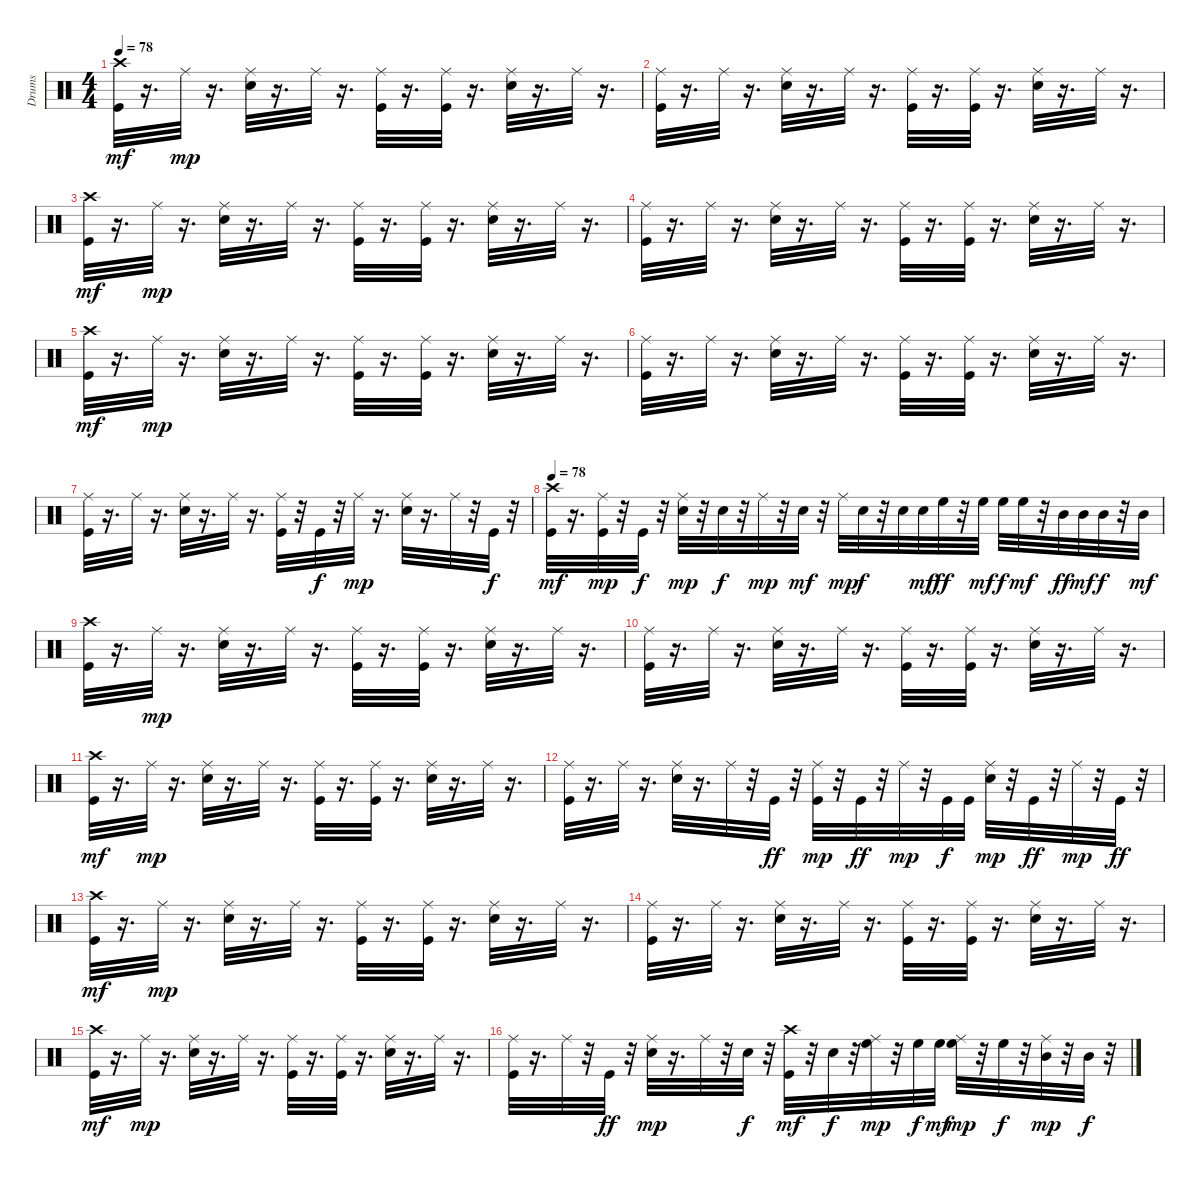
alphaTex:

\track ("Drums" "Drums") {instrument percussion}
\staff {score}
\articulation defaults
\ts (4 4)
\tempo 78
\clef neutral
\ks c
("Kick (hit)" "Crash high (hit)").32{dy mf} r.16{d} "Ride (middle)".32{dy mp} r.16{d} ("Snare (hit) 2" "Ride (middle)").32 r.16{d} "Ride (middle)".32 r.16{d} ("Kick (hit)" "Ride (middle)").32 r.16{d} ("Kick (hit)" "Ride (middle)").32 r.16{d} ("Snare (hit) 2" "Ride (middle)").32 r.16{d} "Ride (middle)".32 r.16{d} |
("Kick (hit)" "Ride (middle)").32 r.16{d} "Ride (middle)".32 r.16{d} ("Snare (hit) 2" "Ride (middle)").32 r.16{d} "Ride (middle)".32 r.16{d} ("Kick (hit)" "Ride (middle)").32 r.16{d} ("Kick (hit)" "Ride (middle)").32 r.16{d} ("Snare (hit) 2" "Ride (middle)").32 r.16{d} "Ride (middle)".32 r.16{d} |
("Kick (hit)" "Crash high (hit)").32{dy mf} r.16{d} "Ride (middle)".32{dy mp} r.16{d} ("Snare (hit) 2" "Ride (middle)").32 r.16{d} "Ride (middle)".32 r.16{d} ("Kick (hit)" "Ride (middle)").32 r.16{d} ("Kick (hit)" "Ride (middle)").32 r.16{d} ("Snare (hit) 2" "Ride (middle)").32 r.16{d} "Ride (middle)".32 r.16{d} |
("Kick (hit)" "Ride (middle)").32 r.16{d} "Ride (middle)".32 r.16{d} ("Snare (hit) 2" "Ride (middle)").32 r.16{d} "Ride (middle)".32 r.16{d} ("Kick (hit)" "Ride (middle)").32 r.16{d} ("Kick (hit)" "Ride (middle)").32 r.16{d} ("Snare (hit) 2" "Ride (middle)").32 r.16{d} "Ride (middle)".32 r.16{d} |
("Kick (hit)" "Crash high (hit)").32{dy mf} r.16{d} "Ride (middle)".32{dy mp} r.16{d} ("Snare (hit) 2" "Ride (middle)").32 r.16{d} "Ride (middle)".32 r.16{d} ("Kick (hit)" "Ride (middle)").32 r.16{d} ("Kick (hit)" "Ride (middle)").32 r.16{d} ("Snare (hit) 2" "Ride (middle)").32 r.16{d} "Ride (middle)".32 r.16{d} |
("Kick (hit)" "Ride (middle)").32 r.16{d} "Ride (middle)".32 r.16{d} ("Snare (hit) 2" "Ride (middle)").32 r.16{d} "Ride (middle)".32 r.16{d} ("Kick (hit)" "Ride (middle)").32 r.16{d} ("Kick (hit)" "Ride (middle)").32 r.16{d} ("Snare (hit) 2" "Ride (middle)").32 r.16{d} "Ride (middle)".32 r.16{d} |
("Kick (hit)" "Ride (middle)").32 r.16{d} "Ride (middle)".32 r.16{d} ("Snare (hit) 2" "Ride (middle)").32 r.16{d} "Ride (middle)".32 r.16{d} ("Kick (hit)" "Ride (middle)").32 r.32 "Kick (hit)".32{dy f} r.32 "Ride (middle)".32{dy mp} r.16{d} ("Snare (hit) 2" "Ride (middle)").32 r.16{d} "Ride (middle)".32 r.32 "Kick (hit)".32{dy f} r.32 |
\tempo 78
("Kick (hit)" "Crash high (hit)").32{dy mf} r.16{d} ("Kick (hit)" "Ride (middle)").32{dy mp} r.32 "Kick (hit)".32{dy f} r.32 ("Snare (hit) 2" "Ride (middle)").32{dy mp} r.32 "Snare (hit) 2".32{dy f} r.32 "Ride (middle)".32{dy mp} r.32 "Snare (hit) 2".32{dy mf} r.32 "Ride (middle)".32{dy mp} "Snare (hit) 2".32{dy f} r.32 "Snare (hit) 2".32 "Snare (hit) 2".32{dy mf} "High Floor Tom (hit)".32{dy ff} r.32 "High Floor Tom (hit)".32{dy mf} "High Floor Tom (hit)".32{dy f} "High Floor Tom (hit)".32{dy mf} r.32 "Mid Tom (hit)".32{dy ff} "Mid Tom (hit)".32{dy mf} "Mid Tom (hit)".32{dy f} r.32 "Mid Tom (hit)".32{dy mf} |
("Kick (hit)" "Crash high (hit)").32 r.16{d} "Ride (middle)".32{dy mp} r.16{d} ("Snare (hit) 2" "Ride (middle)").32 r.16{d} "Ride (middle)".32 r.16{d} ("Kick (hit)" "Ride (middle)").32 r.16{d} ("Kick (hit)" "Ride (middle)").32 r.16{d} ("Snare (hit) 2" "Ride (middle)").32 r.16{d} "Ride (middle)".32 r.16{d} |
("Kick (hit)" "Ride (middle)").32 r.16{d} "Ride (middle)".32 r.16{d} ("Snare (hit) 2" "Ride (middle)").32 r.16{d} "Ride (middle)".32 r.16{d} ("Kick (hit)" "Ride (middle)").32 r.16{d} ("Kick (hit)" "Ride (middle)").32 r.16{d} ("Snare (hit) 2" "Ride (middle)").32 r.16{d} "Ride (middle)".32 r.16{d} |
("Kick (hit)" "Crash high (hit)").32{dy mf} r.16{d} "Ride (middle)".32{dy mp} r.16{d} ("Snare (hit) 2" "Ride (middle)").32 r.16{d} "Ride (middle)".32 r.16{d} ("Kick (hit)" "Ride (middle)").32 r.16{d} ("Kick (hit)" "Ride (middle)").32 r.16{d} ("Snare (hit) 2" "Ride (middle)").32 r.16{d} "Ride (middle)".32 r.16{d} |
("Kick (hit)" "Ride (middle)").32 r.16{d} "Ride (middle)".32 r.16{d} ("Snare (hit) 2" "Ride (middle)").32 r.16{d} "Ride (middle)".32 r.32 "Kick (hit)".32{dy ff} r.32 ("Kick (hit)" "Ride (middle)").32{dy mp} r.32 "Kick (hit)".32{dy ff} r.32 "Ride (middle)".32{dy mp} r.32 "Kick (hit)".32{dy f} "Kick (hit)".32 ("Snare (hit) 2" "Ride (middle)").32{dy mp} r.32 "Kick (hit)".32{dy ff} r.32 "Ride (middle)".32{dy mp} r.32 "Kick (hit)".32{dy ff} r.32 |
("Kick (hit)" "Crash high (hit)").32{dy mf} r.16{d} "Ride (middle)".32{dy mp} r.16{d} ("Snare (hit) 2" "Ride (middle)").32 r.16{d} "Ride (middle)".32 r.16{d} ("Kick (hit)" "Ride (middle)").32 r.16{d} ("Kick (hit)" "Ride (middle)").32 r.16{d} ("Snare (hit) 2" "Ride (middle)").32 r.16{d} "Ride (middle)".32 r.16{d} |
("Kick (hit)" "Ride (middle)").32 r.16{d} "Ride (middle)".32 r.16{d} ("Snare (hit) 2" "Ride (middle)").32 r.16{d} "Ride (middle)".32 r.16{d} ("Kick (hit)" "Ride (middle)").32 r.16{d} ("Kick (hit)" "Ride (middle)").32 r.16{d} ("Snare (hit) 2" "Ride (middle)").32 r.16{d} "Ride (middle)".32 r.16{d} |
("Kick (hit)" "Crash high (hit)").32{dy mf} r.16{d} "Ride (middle)".32{dy mp} r.16{d} ("Snare (hit) 2" "Ride (middle)").32 r.16{d} "Ride (middle)".32 r.16{d} ("Kick (hit)" "Ride (middle)").32 r.16{d} ("Kick (hit)" "Ride (middle)").32 r.16{d} ("Snare (hit) 2" "Ride (middle)").32 r.16{d} "Ride (middle)".32 r.16{d} |
("Kick (hit)" "Ride (middle)").32 r.16{d} "Ride (middle)".32 r.32 "Kick (hit)".32{dy ff} r.32 ("Snare (hit) 2" "Ride (middle)").32{dy mp} r.16{d} "Ride (middle)".32 r.32 "Snare (hit) 2".32{dy f} r.32 ("Kick (hit)" "Crash high (hit)").32{dy mf} r.32 "Snare (hit) 2".32{dy f} r.32 ("High Floor Tom (hit)" "Ride (middle)").32{dy mp} r.32 "High Floor Tom (hit)".32{dy f} "High Floor Tom (hit)".32{dy mf} ("High Floor Tom (hit)" "Ride (middle)").32{dy mp} r.32 "High Floor Tom (hit)".32{dy f} r.32 ("Mid Tom (hit)" "Ride (middle)").32{dy mp} r.32 "Mid Tom (hit)".32{dy f} r.32
